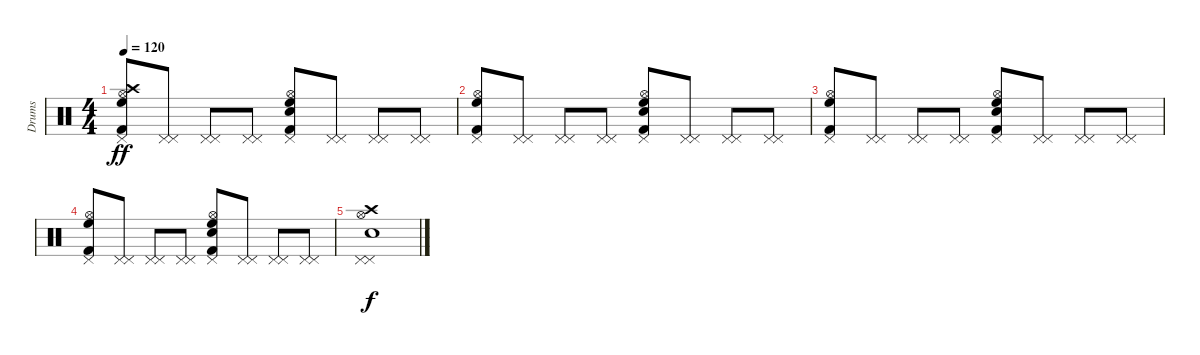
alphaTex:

\track ("Drums" "Drums") {instrument percussion}
\staff {score}
\articulation defaults
\ts (4 4)
\tempo 120
\clef neutral
\ks c
("High Floor Tom (hit)" "Hi-Hat (open)" "Crash high (hit)" "Pedal Hi-Hat (hit)" "Kick (hit) 2").8{dy ff} ("Pedal Hi-Hat (hit)" "Pedal Hi-Hat (hit)").8 ("Pedal Hi-Hat (hit)" "Pedal Hi-Hat (hit)").8 ("Pedal Hi-Hat (hit)" "Pedal Hi-Hat (hit)").8 ("High Floor Tom (hit)" "Hi-Hat (open)" "Electric Snare (hit)" "Pedal Hi-Hat (hit)" "Kick (hit) 2").8 ("Pedal Hi-Hat (hit)" "Pedal Hi-Hat (hit)").8 ("Pedal Hi-Hat (hit)" "Pedal Hi-Hat (hit)").8 ("Pedal Hi-Hat (hit)" "Pedal Hi-Hat (hit)").8 |
("High Floor Tom (hit)" "Hi-Hat (open)" "Pedal Hi-Hat (hit)" "Kick (hit) 2").8 ("Pedal Hi-Hat (hit)" "Pedal Hi-Hat (hit)").8 ("Pedal Hi-Hat (hit)" "Pedal Hi-Hat (hit)").8 ("Pedal Hi-Hat (hit)" "Pedal Hi-Hat (hit)").8 ("High Floor Tom (hit)" "Hi-Hat (open)" "Electric Snare (hit)" "Pedal Hi-Hat (hit)" "Kick (hit) 2").8 ("Pedal Hi-Hat (hit)" "Pedal Hi-Hat (hit)").8 ("Pedal Hi-Hat (hit)" "Pedal Hi-Hat (hit)").8 ("Pedal Hi-Hat (hit)" "Pedal Hi-Hat (hit)").8 |
("High Floor Tom (hit)" "Hi-Hat (open)" "Pedal Hi-Hat (hit)" "Kick (hit) 2").8 ("Pedal Hi-Hat (hit)" "Pedal Hi-Hat (hit)").8 ("Pedal Hi-Hat (hit)" "Pedal Hi-Hat (hit)").8 ("Pedal Hi-Hat (hit)" "Pedal Hi-Hat (hit)").8 ("High Floor Tom (hit)" "Hi-Hat (open)" "Electric Snare (hit)" "Pedal Hi-Hat (hit)" "Kick (hit) 2").8 ("Pedal Hi-Hat (hit)" "Pedal Hi-Hat (hit)").8 ("Pedal Hi-Hat (hit)" "Pedal Hi-Hat (hit)").8 ("Pedal Hi-Hat (hit)" "Pedal Hi-Hat (hit)").8 |
("High Floor Tom (hit)" "Hi-Hat (open)" "Pedal Hi-Hat (hit)" "Kick (hit) 2").8 ("Pedal Hi-Hat (hit)" "Pedal Hi-Hat (hit)").8 ("Pedal Hi-Hat (hit)" "Pedal Hi-Hat (hit)").8 ("Pedal Hi-Hat (hit)" "Pedal Hi-Hat (hit)").8 ("High Floor Tom (hit)" "Hi-Hat (open)" "Electric Snare (hit)" "Pedal Hi-Hat (hit)" "Kick (hit) 2").8 ("Pedal Hi-Hat (hit)" "Pedal Hi-Hat (hit)").8 ("Pedal Hi-Hat (hit)" "Pedal Hi-Hat (hit)").8 ("Pedal Hi-Hat (hit)" "Pedal Hi-Hat (hit)").8 |
("Crash high (hit)" "Hi-Hat (open)" "Electric Snare (hit)" "Pedal Hi-Hat (hit)" "Pedal Hi-Hat (hit)").1{dy f}
